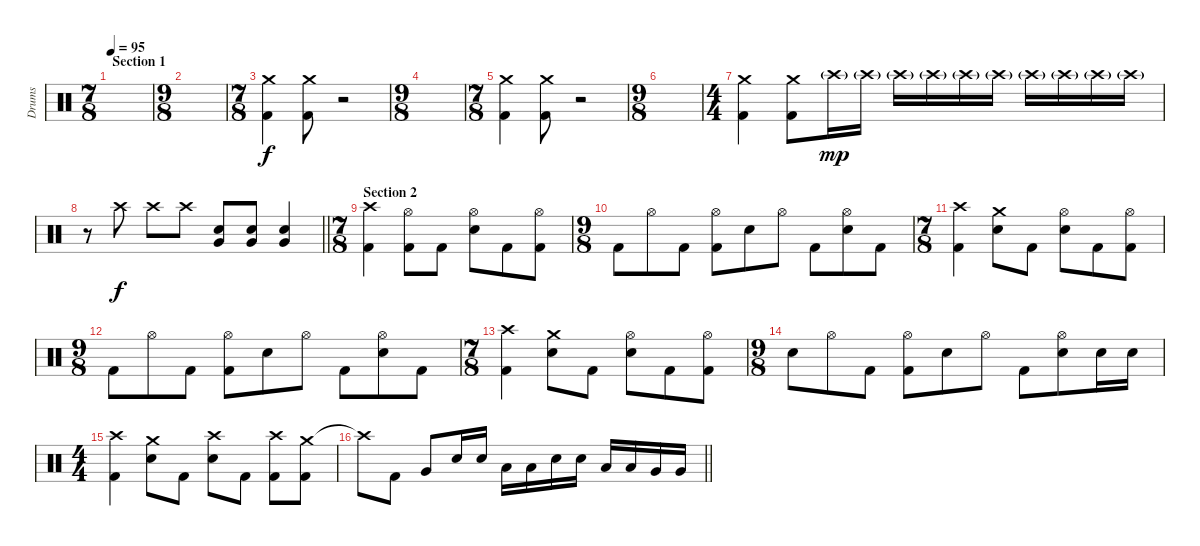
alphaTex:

\track ("Drums" "Drums") {instrument percussion}
\staff {score}
\articulation defaults
\ts (7 8)
\section ("" "Section 1")
\tempo 95
\clef neutral
\ks c
|
\ts (9 8)
|
\ts (7 8)
("Crash medium (hit)" "Kick (hit) 2").4 ("Crash medium (hit)" "Kick (hit) 2").8 r.2 |
\ts (9 8)
|
\ts (7 8)
("Crash medium (hit)" "Kick (hit) 2").4 ("Crash medium (hit)" "Kick (hit) 2").8 r.2 |
\ts (9 8)
|
\ts (4 4)
("Crash medium (hit)" "Kick (hit) 2").4 ("Crash medium (hit)" "Kick (hit) 2").8 "Crash high (hit)"{g}.16{dy mp} "Crash high (hit)"{g}.16 "Crash high (hit)"{g}.16 "Crash high (hit)"{g}.16 "Crash high (hit)"{g}.16 "Crash high (hit)"{g}.16 "Crash high (hit)"{g}.16 "Crash high (hit)"{g}.16 "Crash high (hit)"{g}.16 "Crash high (hit)"{g}.16 |
\barLineRight lightlight
r.8 "Crash high (hit)".8{dy f} "Crash high (hit)".8 "Crash high (hit)".8 ("Snare (hit) 2" "Very Low Tom (hit)").8 ("Snare (hit) 2" "Very Low Tom (hit)").8 ("Snare (hit) 2" "Very Low Tom (hit)").4 |
\ts (7 8)
\section ("" "Section 2")
("Crash high (hit)" "Kick (hit) 2").4 ("Hi-Hat (open)" "Kick (hit) 2").8 "Kick (hit) 2".8 ("Hi-Hat (open)" "Snare (hit) 2").8 "Kick (hit) 2".8 ("Hi-Hat (open)" "Kick (hit) 2").8 |
\ts (9 8)
"Kick (hit) 2".8 "Hi-Hat (open)".8 "Kick (hit) 2".8 ("Hi-Hat (open)" "Kick (hit) 2").8 "Snare (hit) 2".8 "Hi-Hat (open)".8 "Kick (hit) 2".8 ("Hi-Hat (open)" "Snare (hit) 2").8 "Kick (hit) 2".8 |
\ts (7 8)
("Crash high (hit)" "Kick (hit) 2").4 ("Crash medium (hit)" "Snare (hit) 2").8 "Kick (hit) 2".8 ("Hi-Hat (open)" "Snare (hit) 2").8 "Kick (hit) 2".8 ("Hi-Hat (open)" "Kick (hit) 2").8 |
\ts (9 8)
"Kick (hit) 2".8 "Hi-Hat (open)".8 "Kick (hit) 2".8 ("Hi-Hat (open)" "Kick (hit) 2").8 "Snare (hit) 2".8 "Hi-Hat (open)".8 "Kick (hit) 2".8 ("Hi-Hat (open)" "Snare (hit) 2").8 "Kick (hit) 2".8 |
\ts (7 8)
("Crash high (hit)" "Kick (hit) 2").4 ("Crash medium (hit)" "Snare (hit) 2").8 "Kick (hit) 2".8 ("Hi-Hat (open)" "Snare (hit) 2").8 "Kick (hit) 2".8 ("Hi-Hat (open)" "Kick (hit) 2").8 |
\ts (9 8)
"Snare (hit) 2".8 "Hi-Hat (open)".8 "Kick (hit) 2".8 ("Hi-Hat (open)" "Kick (hit) 2").8 "Snare (hit) 2".8 "Hi-Hat (open)".8 "Kick (hit) 2".8 ("Hi-Hat (open)" "Snare (hit) 2").8 "Snare (hit) 2".16 "Snare (hit) 2".16 |
\ts (4 4)
("Crash high (hit)" "Kick (hit) 2").4 ("Crash medium (hit)" "Snare (hit) 2").8 "Kick (hit) 2".8 ("Crash high (hit)" "Snare (hit) 2").8 "Kick (hit) 2".8 ("Crash high (hit)" "Kick (hit) 2").8 ("Crash medium (hit)" "Kick (hit) 2").8 |
\barLineRight lightlight "Crash high (hit)"{t}.8 "Kick (hit) 2".8 "Very Low Tom (hit)".8 "Snare (hit) 2".16 "Snare (hit) 2".16 "Low Tom (hit)".16 "Low Tom (hit)".16 "Snare (hit) 2".16 "Snare (hit) 2".16 "Low Tom (hit)".16 "Low Tom (hit)".16 "Very Low Tom (hit)".16 "Very Low Tom (hit)".16
